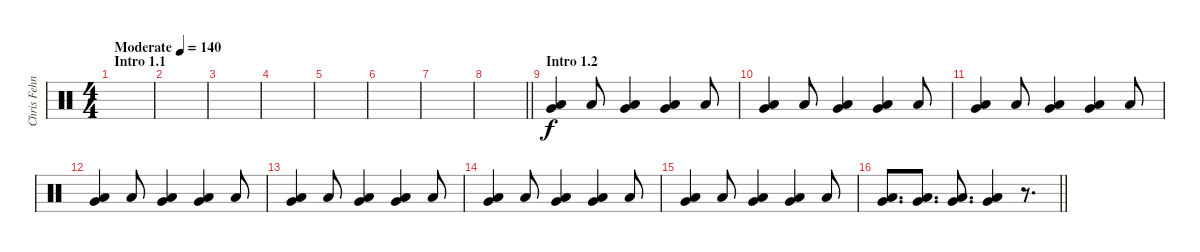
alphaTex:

\track ("Chris Fehn" "Chris Fehn") {instrument percussion}
\staff {score}
\articulation defaults
\ts (4 4)
\section ("" "Intro 1.1")
\tempo (140 "Moderate")
\clef neutral
\ks c
|
|
|
|
|
|
|
\barLineRight lightlight
|
\section ("" "Intro 1.2")
("Very Low Tom (hit)" "Low Floor Tom (hit)").4 "Low Floor Tom (hit)".8 ("Very Low Tom (hit)" "Low Floor Tom (hit)").4 ("Very Low Tom (hit)" "Low Floor Tom (hit)").4 "Low Floor Tom (hit)".8 |
("Very Low Tom (hit)" "Low Floor Tom (hit)").4 "Low Floor Tom (hit)".8 ("Very Low Tom (hit)" "Low Floor Tom (hit)").4 ("Very Low Tom (hit)" "Low Floor Tom (hit)").4 "Low Floor Tom (hit)".8 |
("Very Low Tom (hit)" "Low Floor Tom (hit)").4 "Low Floor Tom (hit)".8 ("Very Low Tom (hit)" "Low Floor Tom (hit)").4 ("Very Low Tom (hit)" "Low Floor Tom (hit)").4 "Low Floor Tom (hit)".8 |
("Very Low Tom (hit)" "Low Floor Tom (hit)").4 "Low Floor Tom (hit)".8 ("Very Low Tom (hit)" "Low Floor Tom (hit)").4 ("Very Low Tom (hit)" "Low Floor Tom (hit)").4 "Low Floor Tom (hit)".8 |
("Very Low Tom (hit)" "Low Floor Tom (hit)").4 "Low Floor Tom (hit)".8 ("Very Low Tom (hit)" "Low Floor Tom (hit)").4 ("Very Low Tom (hit)" "Low Floor Tom (hit)").4 "Low Floor Tom (hit)".8 |
("Very Low Tom (hit)" "Low Floor Tom (hit)").4 "Low Floor Tom (hit)".8 ("Very Low Tom (hit)" "Low Floor Tom (hit)").4 ("Very Low Tom (hit)" "Low Floor Tom (hit)").4 "Low Floor Tom (hit)".8 |
("Very Low Tom (hit)" "Low Floor Tom (hit)").4 "Low Floor Tom (hit)".8 ("Very Low Tom (hit)" "Low Floor Tom (hit)").4 ("Very Low Tom (hit)" "Low Floor Tom (hit)").4 "Low Floor Tom (hit)".8 |
\barLineRight lightlight
("Very Low Tom (hit)" "Low Floor Tom (hit)").8{d} ("Very Low Tom (hit)" "Low Floor Tom (hit)").8{d} ("Very Low Tom (hit)" "Low Floor Tom (hit)").8{d} ("Very Low Tom (hit)" "Low Floor Tom (hit)").4 r.8{d}
